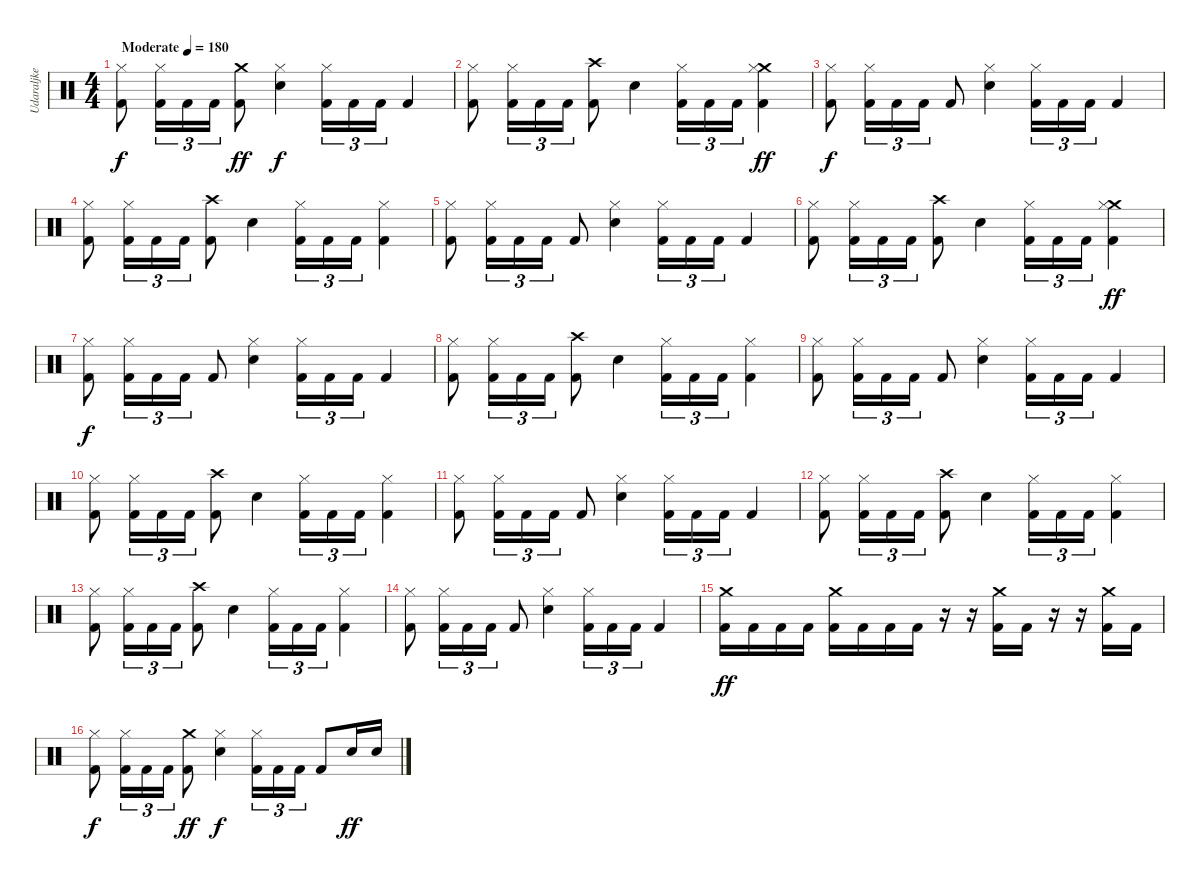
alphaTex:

\track ("Udaraljke" "Udaraljke") {instrument percussion}
\staff {score}
\articulation defaults
\ts (4 4)
\tempo (180 "Moderate")
\clef neutral
\ks c
("Kick (hit) 2" "Hi-Hat (closed)").8{dy f} ("Kick (hit) 2" "Hi-Hat (closed)").16{tu (3 2)} "Kick (hit) 2".16{tu (3 2)} "Kick (hit) 2".16{tu (3 2)} ("Kick (hit) 2" "Crash medium (hit)").8{dy ff} ("Snare (hit) 2" "Hi-Hat (closed)").4{dy f} ("Kick (hit) 2" "Hi-Hat (closed)").16{tu (3 2)} "Kick (hit) 2".16{tu (3 2)} "Kick (hit) 2".16{tu (3 2)} "Kick (hit) 2".4 |
("Kick (hit) 2" "Hi-Hat (closed)").8 ("Kick (hit) 2" "Hi-Hat (closed)").16{tu (3 2)} "Kick (hit) 2".16{tu (3 2)} "Kick (hit) 2".16{tu (3 2)} ("Kick (hit) 2" "Crash high (hit)").8 "Snare (hit) 2".4 ("Kick (hit) 2" "Hi-Hat (closed)").16{tu (3 2)} "Kick (hit) 2".16{tu (3 2)} "Kick (hit) 2".16{tu (3 2)} ("Kick (hit) 2" "Crash medium (hit)" "Hi-Hat (closed)").4{dy ff} |
("Kick (hit) 2" "Hi-Hat (closed)").8{dy f} ("Kick (hit) 2" "Hi-Hat (closed)").16{tu (3 2)} "Kick (hit) 2".16{tu (3 2)} "Kick (hit) 2".16{tu (3 2)} "Kick (hit) 2".8 ("Snare (hit) 2" "Hi-Hat (closed)").4 ("Kick (hit) 2" "Hi-Hat (closed)").16{tu (3 2)} "Kick (hit) 2".16{tu (3 2)} "Kick (hit) 2".16{tu (3 2)} "Kick (hit) 2".4 |
("Kick (hit) 2" "Hi-Hat (closed)").8 ("Kick (hit) 2" "Hi-Hat (closed)").16{tu (3 2)} "Kick (hit) 2".16{tu (3 2)} "Kick (hit) 2".16{tu (3 2)} ("Kick (hit) 2" "Crash high (hit)").8 "Snare (hit) 2".4 ("Kick (hit) 2" "Hi-Hat (closed)").16{tu (3 2)} "Kick (hit) 2".16{tu (3 2)} "Kick (hit) 2".16{tu (3 2)} ("Kick (hit) 2" "Hi-Hat (closed)").4 |
("Kick (hit) 2" "Hi-Hat (closed)").8 ("Kick (hit) 2" "Hi-Hat (closed)").16{tu (3 2)} "Kick (hit) 2".16{tu (3 2)} "Kick (hit) 2".16{tu (3 2)} "Kick (hit) 2".8 ("Snare (hit) 2" "Hi-Hat (closed)").4 ("Kick (hit) 2" "Hi-Hat (closed)").16{tu (3 2)} "Kick (hit) 2".16{tu (3 2)} "Kick (hit) 2".16{tu (3 2)} "Kick (hit) 2".4 |
("Kick (hit) 2" "Hi-Hat (closed)").8 ("Kick (hit) 2" "Hi-Hat (closed)").16{tu (3 2)} "Kick (hit) 2".16{tu (3 2)} "Kick (hit) 2".16{tu (3 2)} ("Kick (hit) 2" "Crash high (hit)").8 "Snare (hit) 2".4 ("Kick (hit) 2" "Hi-Hat (closed)").16{tu (3 2)} "Kick (hit) 2".16{tu (3 2)} "Kick (hit) 2".16{tu (3 2)} ("Kick (hit) 2" "Crash medium (hit)" "Hi-Hat (closed)").4{dy ff} |
("Kick (hit) 2" "Hi-Hat (closed)").8{dy f} ("Kick (hit) 2" "Hi-Hat (closed)").16{tu (3 2)} "Kick (hit) 2".16{tu (3 2)} "Kick (hit) 2".16{tu (3 2)} "Kick (hit) 2".8 ("Snare (hit) 2" "Hi-Hat (closed)").4 ("Kick (hit) 2" "Hi-Hat (closed)").16{tu (3 2)} "Kick (hit) 2".16{tu (3 2)} "Kick (hit) 2".16{tu (3 2)} "Kick (hit) 2".4 |
("Kick (hit) 2" "Hi-Hat (closed)").8 ("Kick (hit) 2" "Hi-Hat (closed)").16{tu (3 2)} "Kick (hit) 2".16{tu (3 2)} "Kick (hit) 2".16{tu (3 2)} ("Kick (hit) 2" "Crash high (hit)").8 "Snare (hit) 2".4 ("Kick (hit) 2" "Hi-Hat (closed)").16{tu (3 2)} "Kick (hit) 2".16{tu (3 2)} "Kick (hit) 2".16{tu (3 2)} ("Kick (hit) 2" "Hi-Hat (closed)").4 |
("Kick (hit) 2" "Hi-Hat (closed)").8 ("Kick (hit) 2" "Hi-Hat (closed)").16{tu (3 2)} "Kick (hit) 2".16{tu (3 2)} "Kick (hit) 2".16{tu (3 2)} "Kick (hit) 2".8 ("Snare (hit) 2" "Hi-Hat (closed)").4 ("Kick (hit) 2" "Hi-Hat (closed)").16{tu (3 2)} "Kick (hit) 2".16{tu (3 2)} "Kick (hit) 2".16{tu (3 2)} "Kick (hit) 2".4 |
("Kick (hit) 2" "Hi-Hat (closed)").8 ("Kick (hit) 2" "Hi-Hat (closed)").16{tu (3 2)} "Kick (hit) 2".16{tu (3 2)} "Kick (hit) 2".16{tu (3 2)} ("Kick (hit) 2" "Crash high (hit)").8 "Snare (hit) 2".4 ("Kick (hit) 2" "Hi-Hat (closed)").16{tu (3 2)} "Kick (hit) 2".16{tu (3 2)} "Kick (hit) 2".16{tu (3 2)} ("Kick (hit) 2" "Hi-Hat (closed)").4 |
("Kick (hit) 2" "Hi-Hat (closed)").8 ("Kick (hit) 2" "Hi-Hat (closed)").16{tu (3 2)} "Kick (hit) 2".16{tu (3 2)} "Kick (hit) 2".16{tu (3 2)} "Kick (hit) 2".8 ("Snare (hit) 2" "Hi-Hat (closed)").4 ("Kick (hit) 2" "Hi-Hat (closed)").16{tu (3 2)} "Kick (hit) 2".16{tu (3 2)} "Kick (hit) 2".16{tu (3 2)} "Kick (hit) 2".4 |
("Kick (hit) 2" "Hi-Hat (closed)").8 ("Kick (hit) 2" "Hi-Hat (closed)").16{tu (3 2)} "Kick (hit) 2".16{tu (3 2)} "Kick (hit) 2".16{tu (3 2)} ("Kick (hit) 2" "Crash high (hit)").8 "Snare (hit) 2".4 ("Kick (hit) 2" "Hi-Hat (closed)").16{tu (3 2)} "Kick (hit) 2".16{tu (3 2)} "Kick (hit) 2".16{tu (3 2)} ("Kick (hit) 2" "Hi-Hat (closed)").4 |
("Kick (hit) 2" "Hi-Hat (closed)").8 ("Kick (hit) 2" "Hi-Hat (closed)").16{tu (3 2)} "Kick (hit) 2".16{tu (3 2)} "Kick (hit) 2".16{tu (3 2)} ("Kick (hit) 2" "Crash high (hit)").8 "Snare (hit) 2".4 ("Kick (hit) 2" "Hi-Hat (closed)").16{tu (3 2)} "Kick (hit) 2".16{tu (3 2)} "Kick (hit) 2".16{tu (3 2)} ("Kick (hit) 2" "Hi-Hat (closed)").4 |
("Kick (hit) 2" "Hi-Hat (closed)").8 ("Kick (hit) 2" "Hi-Hat (closed)").16{tu (3 2)} "Kick (hit) 2".16{tu (3 2)} "Kick (hit) 2".16{tu (3 2)} "Kick (hit) 2".8 ("Snare (hit) 2" "Hi-Hat (closed)").4 ("Kick (hit) 2" "Hi-Hat (closed)").16{tu (3 2)} "Kick (hit) 2".16{tu (3 2)} "Kick (hit) 2".16{tu (3 2)} "Kick (hit) 2".4 |
("Kick (hit) 2" "Crash medium (hit)").16{dy ff} "Kick (hit) 2".16 "Kick (hit) 2".16 "Kick (hit) 2".16 ("Kick (hit) 2" "Crash medium (hit)").16 "Kick (hit) 2".16 "Kick (hit) 2".16 "Kick (hit) 2".16 r.16 r.16 ("Kick (hit) 2" "Crash medium (hit)").16 "Kick (hit) 2".16 r.16 r.16 ("Kick (hit) 2" "Crash medium (hit)").16 "Kick (hit) 2".16 |
("Kick (hit) 2" "Hi-Hat (closed)").8{dy f} ("Kick (hit) 2" "Hi-Hat (closed)").16{tu (3 2)} "Kick (hit) 2".16{tu (3 2)} "Kick (hit) 2".16{tu (3 2)} ("Kick (hit) 2" "Crash medium (hit)").8{dy ff} ("Snare (hit) 2" "Hi-Hat (closed)").4{dy f} ("Kick (hit) 2" "Hi-Hat (closed)").16{tu (3 2)} "Kick (hit) 2".16{tu (3 2)} "Kick (hit) 2".16{tu (3 2)} "Kick (hit) 2".8 "Snare (hit) 2".16{dy ff} "Snare (hit) 2".16
